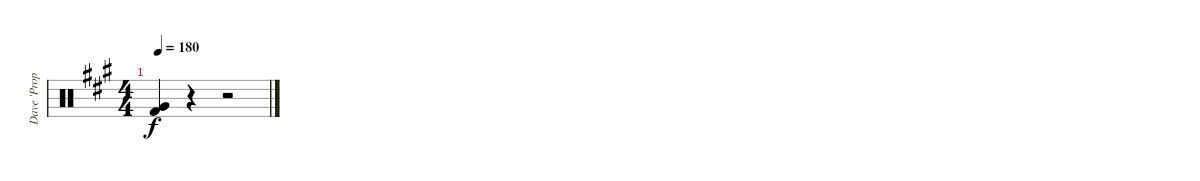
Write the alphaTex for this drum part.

\track ("Dave 'Proper' Caution" "Dave 'Prop") {instrument percussion}
\staff {score}
\articulation defaults
\ts (4 4)
\tempo 180
\clef neutral
\ks a
("Very Low Tom (hit)" "Kick (hit) 2").4{dy f} r.4 r.2
